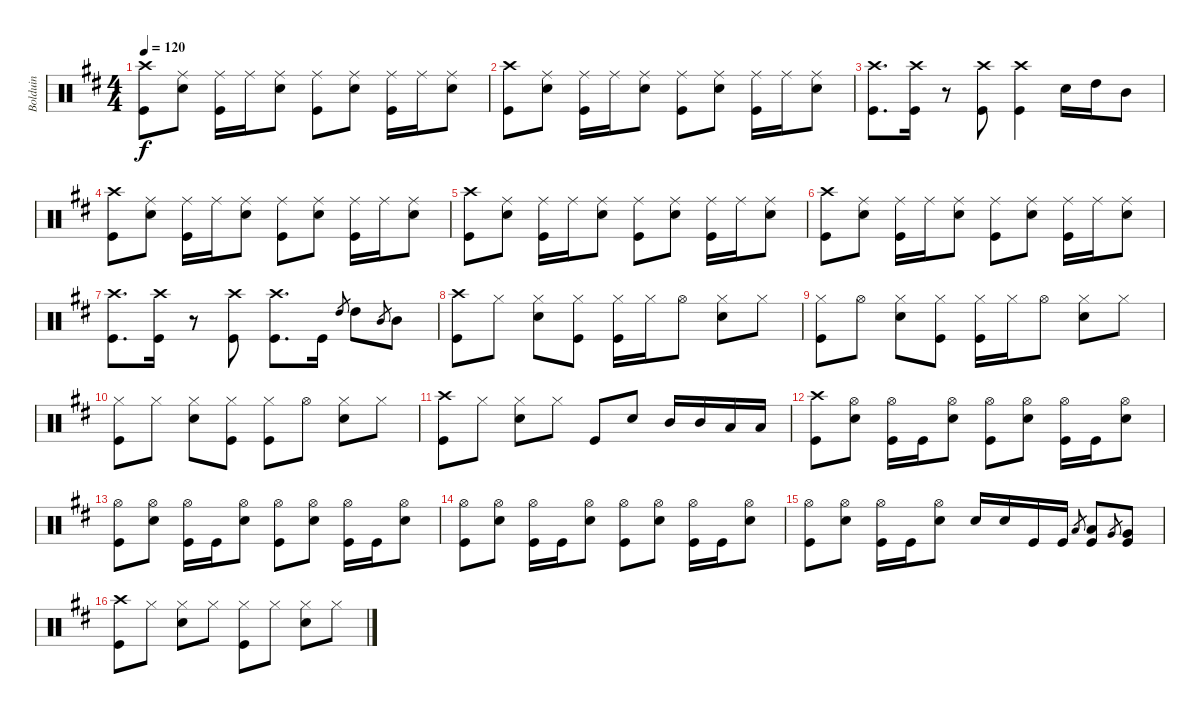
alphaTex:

\track ("Bolduin" "Bolduin") {instrument percussion}
\staff {score}
\articulation defaults
\ts (4 4)
\tempo 120
\clef neutral
\ks bminor
("Kick (hit)" "Crash high (hit)").8{dy f} ("Snare (hit) 2" "Ride (middle)").8 ("Kick (hit)" "Ride (middle)").16 "Ride (middle)".16 ("Snare (hit) 2" "Ride (middle)").8 ("Kick (hit)" "Ride (middle)").8 ("Snare (hit) 2" "Ride (middle)").8 ("Kick (hit)" "Ride (middle)").16 "Ride (middle)".16 ("Snare (hit) 2" "Ride (middle)").8 |
("Kick (hit)" "Crash high (hit)").8 ("Snare (hit) 2" "Ride (middle)").8 ("Kick (hit)" "Ride (middle)").16 "Ride (middle)".16 ("Snare (hit) 2" "Ride (middle)").8 ("Kick (hit)" "Ride (middle)").8 ("Snare (hit) 2" "Ride (middle)").8 ("Kick (hit)" "Ride (middle)").16 "Ride (middle)".16 ("Snare (hit) 2" "Ride (middle)").8 |
("Crash high (hit)" "Kick (hit)").8{d} ("Kick (hit)" "Crash high (hit)").16 r.8 ("Kick (hit)" "Crash high (hit)").8 ("Kick (hit)" "Crash high (hit)").4 "Snare (hit) 2".16 "High Tom (hit)".16 "Mid Tom (hit)".8 |
("Kick (hit)" "Crash high (hit)").8 ("Snare (hit) 2" "Ride (middle)").8 ("Kick (hit)" "Ride (middle)").16 "Ride (middle)".16 ("Snare (hit) 2" "Ride (middle)").8 ("Kick (hit)" "Ride (middle)").8 ("Snare (hit) 2" "Ride (middle)").8 ("Kick (hit)" "Ride (middle)").16 "Ride (middle)".16 ("Snare (hit) 2" "Ride (middle)").8 |
("Kick (hit)" "Crash high (hit)").8 ("Snare (hit) 2" "Ride (middle)").8 ("Kick (hit)" "Ride (middle)").16 "Ride (middle)".16 ("Snare (hit) 2" "Ride (middle)").8 ("Kick (hit)" "Ride (middle)").8 ("Snare (hit) 2" "Ride (middle)").8 ("Kick (hit)" "Ride (middle)").16 "Ride (middle)".16 ("Snare (hit) 2" "Ride (middle)").8 |
("Kick (hit)" "Crash high (hit)").8 ("Snare (hit) 2" "Ride (middle)").8 ("Kick (hit)" "Ride (middle)").16 "Ride (middle)".16 ("Snare (hit) 2" "Ride (middle)").8 ("Kick (hit)" "Ride (middle)").8 ("Snare (hit) 2" "Ride (middle)").8 ("Kick (hit)" "Ride (middle)").16 "Ride (middle)".16 ("Snare (hit) 2" "Ride (middle)").8 |
("Crash high (hit)" "Kick (hit)").8{d} ("Kick (hit)" "Crash high (hit)").16 r.8 ("Kick (hit)" "Crash high (hit)").8 ("Kick (hit)" "Crash high (hit)").8{d} "Kick (hit)".16 "High Tom (hit)".8{gr} "High Tom (hit)".8 "Mid Tom (hit)".8{gr} "Mid Tom (hit)".8 |
("Kick (hit)" "Crash high (hit)").8 "Hi-Hat (closed)".8 ("Hi-Hat (closed)" "Snare (hit) 2").8 ("Hi-Hat (closed)" "Kick (hit)").8 ("Kick (hit)" "Hi-Hat (closed)").16 "Hi-Hat (closed)".16 "Hi-Hat (open)".8 ("Hi-Hat (closed)" "Snare (hit) 2").8 "Hi-Hat (closed)".8 |
("Kick (hit)" "Hi-Hat (closed)").8 "Hi-Hat (open)".8 ("Hi-Hat (closed)" "Snare (hit) 2").8 ("Hi-Hat (closed)" "Kick (hit)").8 ("Kick (hit)" "Hi-Hat (closed)").16 "Hi-Hat (closed)".16 "Hi-Hat (open)".8 ("Hi-Hat (closed)" "Snare (hit) 2").8 "Hi-Hat (closed)".8 |
("Kick (hit)" "Hi-Hat (closed)").8 "Hi-Hat (closed)".8 ("Hi-Hat (closed)" "Snare (hit) 2").8 ("Hi-Hat (closed)" "Kick (hit)").8 ("Kick (hit)" "Hi-Hat (closed)").8 "Hi-Hat (open)".8 ("Hi-Hat (closed)" "Snare (hit) 2").8 "Hi-Hat (closed)".8 |
("Crash high (hit)" "Kick (hit)").8 "Hi-Hat (closed)".8 ("Hi-Hat (closed)" "Snare (hit) 2").8 "Hi-Hat (closed)".8 "Kick (hit)".8 "Snare (hit) 2".8 "Mid Tom (hit)".16 "Mid Tom (hit)".16 "Low Tom (hit)".16 "Low Tom (hit)".16 |
("Kick (hit)" "Crash high (hit)").8 ("Hi-Hat (open)" "Snare (hit) 2").8 ("Kick (hit)" "Hi-Hat (open)").16 "Kick (hit)".16 ("Snare (hit) 2" "Hi-Hat (open)").8 ("Kick (hit)" "Hi-Hat (open)").8 ("Hi-Hat (open)" "Snare (hit) 2").8 ("Kick (hit)" "Hi-Hat (open)").16 "Kick (hit)".16 ("Snare (hit) 2" "Hi-Hat (open)").8 |
("Kick (hit)" "Hi-Hat (open)").8 ("Hi-Hat (open)" "Snare (hit) 2").8 ("Kick (hit)" "Hi-Hat (open)").16 "Kick (hit)".16 ("Snare (hit) 2" "Hi-Hat (open)").8 ("Kick (hit)" "Hi-Hat (open)").8 ("Hi-Hat (open)" "Snare (hit) 2").8 ("Kick (hit)" "Hi-Hat (open)").16 "Kick (hit)".16 ("Snare (hit) 2" "Hi-Hat (open)").8 |
("Kick (hit)" "Hi-Hat (open)").8 ("Hi-Hat (open)" "Snare (hit) 2").8 ("Kick (hit)" "Hi-Hat (open)").16 "Kick (hit)".16 ("Snare (hit) 2" "Hi-Hat (open)").8 ("Kick (hit)" "Hi-Hat (open)").8 ("Hi-Hat (open)" "Snare (hit) 2").8 ("Kick (hit)" "Hi-Hat (open)").16 "Kick (hit)".16 ("Snare (hit) 2" "Hi-Hat (open)").8 |
("Kick (hit)" "Hi-Hat (open)").8 ("Snare (hit) 2" "Hi-Hat (open)").8 ("Kick (hit)" "Hi-Hat (open)").16 "Kick (hit)".16 ("Snare (hit) 2" "Hi-Hat (open)").8 "Snare (hit) 2".16 "Snare (hit) 2".16 "Kick (hit)".16 "Kick (hit)".16 "Low Tom (hit)".8{gr} ("Low Tom (hit)" "Kick (hit)").8 "Very Low Tom (hit)".8{gr} ("Very Low Tom (hit)" "Kick (hit)").8 |
("Kick (hit)" "Crash high (hit)").8 "Hi-Hat (closed)".8 ("Hi-Hat (closed)" "Snare (hit) 2").8 "Hi-Hat (closed)".8 ("Kick (hit)" "Hi-Hat (closed)").8 "Hi-Hat (closed)".8 ("Hi-Hat (closed)" "Snare (hit) 2").8 "Hi-Hat (closed)".8
